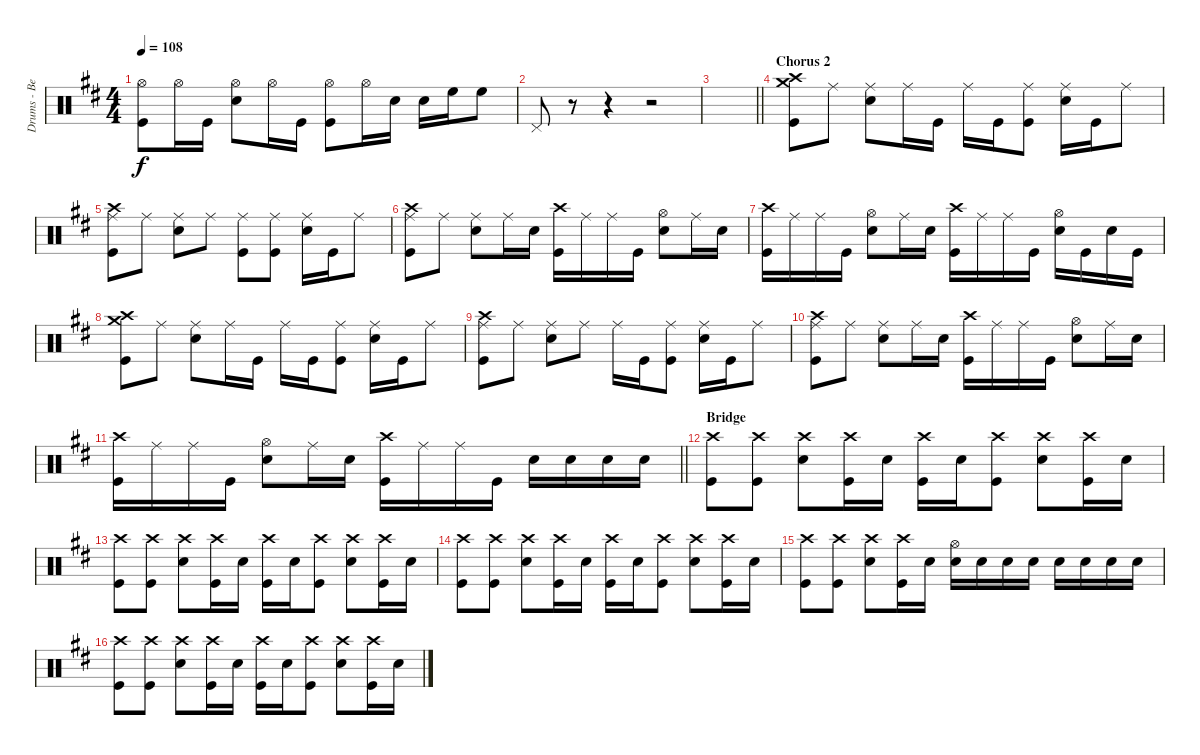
\track ("Drums - Ben Johnston" "Drums - Be") {instrument percussion}
\staff {score}
\articulation defaults
\ts (4 4)
\tempo 108
\clef neutral
\ks d
("Hi-Hat (open)" "Kick (hit)").8{dy f} "Hi-Hat (open)".16 "Kick (hit)".16 ("Hi-Hat (open)" "Snare (hit) 2").8 "Hi-Hat (open)".16 "Kick (hit)".16 ("Hi-Hat (open)" "Kick (hit)").8 "Hi-Hat (open)".16 "Snare (hit) 2".16 "Snare (hit) 2".16 "High Floor Tom (hit)".16 "High Floor Tom (hit)".8 |
"Pedal Hi-Hat (hit)".8 r.8 r.4 r.2 |
\barLineRight lightlight
|
\section ("" "Chorus 2")
("Crash high (hit)" "Crash medium (hit)" "Kick (hit)").8 "Ride (middle)".8 ("Ride (middle)" "Snare (hit) 2").8 "Ride (middle)".16 "Kick (hit)".16 "Ride (middle)".16 "Kick (hit)".16 ("Ride (middle)" "Kick (hit)").8 ("Ride (middle)" "Snare (hit) 2").16 "Kick (hit)".16 "Ride (middle)".8 |
("Crash high (hit)" "Ride (middle)" "Kick (hit)").8 "Ride (middle)".8 ("Ride (middle)" "Snare (hit) 2").8 "Ride (middle)".8 ("Ride (middle)" "Kick (hit)").8 ("Ride (middle)" "Kick (hit)").8 ("Ride (middle)" "Snare (hit) 2").16 "Kick (hit)".16 "Ride (middle)".8 |
("Crash high (hit)" "Ride (middle)" "Kick (hit)").8 "Ride (middle)".8 ("Ride (middle)" "Snare (hit) 2").8 "Ride (middle)".16 "Snare (hit) 2".16 ("Crash high (hit)" "Kick (hit)").16 "Ride (middle)".16 "Ride (middle)".16 "Kick (hit)".16 ("Hi-Hat (open)" "Snare (hit) 2").8 "Ride (middle)".16 "Snare (hit) 2".16 |
("Crash high (hit)" "Kick (hit)").16 "Ride (middle)".16 "Ride (middle)".16 "Kick (hit)".16 ("Hi-Hat (open)" "Snare (hit) 2").8 "Ride (middle)".16 "Snare (hit) 2".16 ("Crash high (hit)" "Kick (hit)").16 "Ride (middle)".16 "Ride (middle)".16 "Kick (hit)".16 ("Hi-Hat (open)" "Snare (hit) 2").16 "Kick (hit)".16 "Snare (hit) 2".16 "Kick (hit)".16 |
("Crash high (hit)" "Crash medium (hit)" "Kick (hit)").8 "Ride (middle)".8 ("Ride (middle)" "Snare (hit) 2").8 "Ride (middle)".16 "Kick (hit)".16 "Ride (middle)".16 "Kick (hit)".16 ("Ride (middle)" "Kick (hit)").8 ("Ride (middle)" "Snare (hit) 2").16 "Kick (hit)".16 "Ride (middle)".8 |
("Crash high (hit)" "Ride (middle)" "Kick (hit)").8 "Ride (middle)".8 ("Ride (middle)" "Snare (hit) 2").8 "Ride (middle)".8 "Ride (middle)".16 "Kick (hit)".16 ("Ride (middle)" "Kick (hit)").8 ("Ride (middle)" "Snare (hit) 2").16 "Kick (hit)".16 "Ride (middle)".8 |
("Crash high (hit)" "Ride (middle)" "Kick (hit)").8 "Ride (middle)".8 ("Ride (middle)" "Snare (hit) 2").8 "Ride (middle)".16 "Snare (hit) 2".16 ("Crash high (hit)" "Kick (hit)").16 "Ride (middle)".16 "Ride (middle)".16 "Kick (hit)".16 ("Hi-Hat (open)" "Snare (hit) 2").8 "Ride (middle)".16 "Snare (hit) 2".16 |
\barLineRight lightlight
("Crash high (hit)" "Kick (hit)").16 "Ride (middle)".16 "Ride (middle)".16 "Kick (hit)".16 ("Hi-Hat (open)" "Snare (hit) 2").8 "Ride (middle)".16 "Snare (hit) 2".16 ("Crash high (hit)" "Kick (hit)").16 "Ride (middle)".16 "Ride (middle)".16 "Kick (hit)".16 "Snare (hit) 2".16 "Snare (hit) 2".16 "Snare (hit) 2".16 "Snare (hit) 2".16 |
\section ("" "Bridge")
("Crash high (hit)" "Kick (hit)").8 ("Crash high (hit)" "Kick (hit)").8 ("Crash high (hit)" "Snare (hit) 2").8 ("Crash high (hit)" "Kick (hit)").16 "Snare (hit) 2".16 ("Crash high (hit)" "Kick (hit)").16 "Snare (hit) 2".16 ("Crash high (hit)" "Kick (hit)").8 ("Crash high (hit)" "Snare (hit) 2").8 ("Crash high (hit)" "Kick (hit)").16 "Snare (hit) 2".16 |
("Crash high (hit)" "Kick (hit)").8 ("Crash high (hit)" "Kick (hit)").8 ("Crash high (hit)" "Snare (hit) 2").8 ("Crash high (hit)" "Kick (hit)").16 "Snare (hit) 2".16 ("Crash high (hit)" "Kick (hit)").16 "Snare (hit) 2".16 ("Crash high (hit)" "Kick (hit)").8 ("Crash high (hit)" "Snare (hit) 2").8 ("Crash high (hit)" "Kick (hit)").16 "Snare (hit) 2".16 |
("Crash high (hit)" "Kick (hit)").8 ("Crash high (hit)" "Kick (hit)").8 ("Crash high (hit)" "Snare (hit) 2").8 ("Crash high (hit)" "Kick (hit)").16 "Snare (hit) 2".16 ("Crash high (hit)" "Kick (hit)").16 "Snare (hit) 2".16 ("Crash high (hit)" "Kick (hit)").8 ("Crash high (hit)" "Snare (hit) 2").8 ("Crash high (hit)" "Kick (hit)").16 "Snare (hit) 2".16 |
("Crash high (hit)" "Kick (hit)").8 ("Crash high (hit)" "Kick (hit)").8 ("Crash high (hit)" "Snare (hit) 2").8 ("Crash high (hit)" "Kick (hit)").16 "Snare (hit) 2".16 ("Hi-Hat (open)" "Snare (hit) 2").16 "Snare (hit) 2".16 "Snare (hit) 2".16 "Snare (hit) 2".16 "Snare (hit) 2".16 "Snare (hit) 2".16 "Snare (hit) 2".16 "Snare (hit) 2".16 |
("Crash high (hit)" "Kick (hit)").8 ("Crash high (hit)" "Kick (hit)").8 ("Crash high (hit)" "Snare (hit) 2").8 ("Crash high (hit)" "Kick (hit)").16 "Snare (hit) 2".16 ("Crash high (hit)" "Kick (hit)").16 "Snare (hit) 2".16 ("Crash high (hit)" "Kick (hit)").8 ("Crash high (hit)" "Snare (hit) 2").8 ("Crash high (hit)" "Kick (hit)").16 "Snare (hit) 2".16
